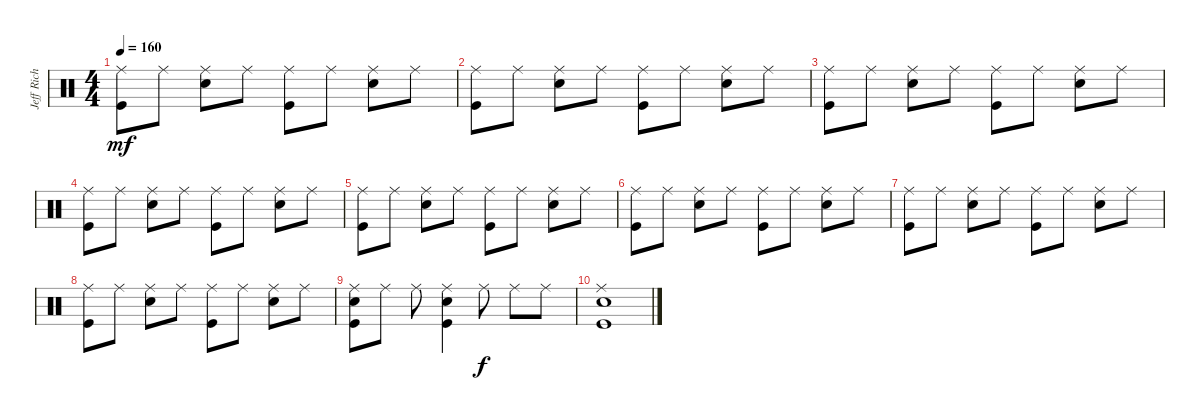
\track ("Jeff Rich (Percussion)" "Jeff Rich ") {instrument percussion}
\staff {score}
\articulation defaults
\ts (4 4)
\tempo 160
\clef neutral
\ks c
("Ride (middle)" "Kick (hit)").8{dy mf} "Ride (middle)".8 ("Ride (middle)" "Snare (hit) 2").8 "Ride (middle)".8 ("Ride (middle)" "Kick (hit)").8 "Ride (middle)".8 ("Ride (middle)" "Snare (hit) 2").8 "Ride (middle)".8 |
("Ride (middle)" "Kick (hit)").8 "Ride (middle)".8 ("Ride (middle)" "Snare (hit) 2").8 "Ride (middle)".8 ("Ride (middle)" "Kick (hit)").8 "Ride (middle)".8 ("Ride (middle)" "Snare (hit) 2").8 "Ride (middle)".8 |
("Ride (middle)" "Kick (hit)").8 "Ride (middle)".8 ("Ride (middle)" "Snare (hit) 2").8 "Ride (middle)".8 ("Ride (middle)" "Kick (hit)").8 "Ride (middle)".8 ("Ride (middle)" "Snare (hit) 2").8 "Ride (middle)".8 |
("Ride (middle)" "Kick (hit)").8 "Ride (middle)".8 ("Ride (middle)" "Snare (hit) 2").8 "Ride (middle)".8 ("Ride (middle)" "Kick (hit)").8 "Ride (middle)".8 ("Ride (middle)" "Snare (hit) 2").8 "Ride (middle)".8 |
("Ride (middle)" "Kick (hit)").8 "Ride (middle)".8 ("Ride (middle)" "Snare (hit) 2").8 "Ride (middle)".8 ("Ride (middle)" "Kick (hit)").8 "Ride (middle)".8 ("Ride (middle)" "Snare (hit) 2").8 "Ride (middle)".8 |
("Ride (middle)" "Kick (hit)").8 "Ride (middle)".8 ("Ride (middle)" "Snare (hit) 2").8 "Ride (middle)".8 ("Ride (middle)" "Kick (hit)").8 "Ride (middle)".8 ("Ride (middle)" "Snare (hit) 2").8 "Ride (middle)".8 |
("Ride (middle)" "Kick (hit)").8 "Ride (middle)".8 ("Ride (middle)" "Snare (hit) 2").8 "Ride (middle)".8 ("Ride (middle)" "Kick (hit)").8 "Ride (middle)".8 ("Ride (middle)" "Snare (hit) 2").8 "Ride (middle)".8 |
("Ride (middle)" "Kick (hit)").8 "Ride (middle)".8 ("Ride (middle)" "Snare (hit) 2").8 "Ride (middle)".8 ("Ride (middle)" "Kick (hit)").8 "Ride (middle)".8 ("Ride (middle)" "Snare (hit) 2").8 "Ride (middle)".8 |
("Ride (middle)" "Snare (hit) 2" "Kick (hit)").8 "Ride (middle)".8 "Ride (middle)".8 ("Ride (middle)" "Snare (hit) 2" "Kick (hit)").4 "Ride (middle)".8{dy f} "Ride (middle)".8 "Ride (middle)".8 |
("Ride (middle)" "Snare (hit) 2" "Kick (hit)").1
